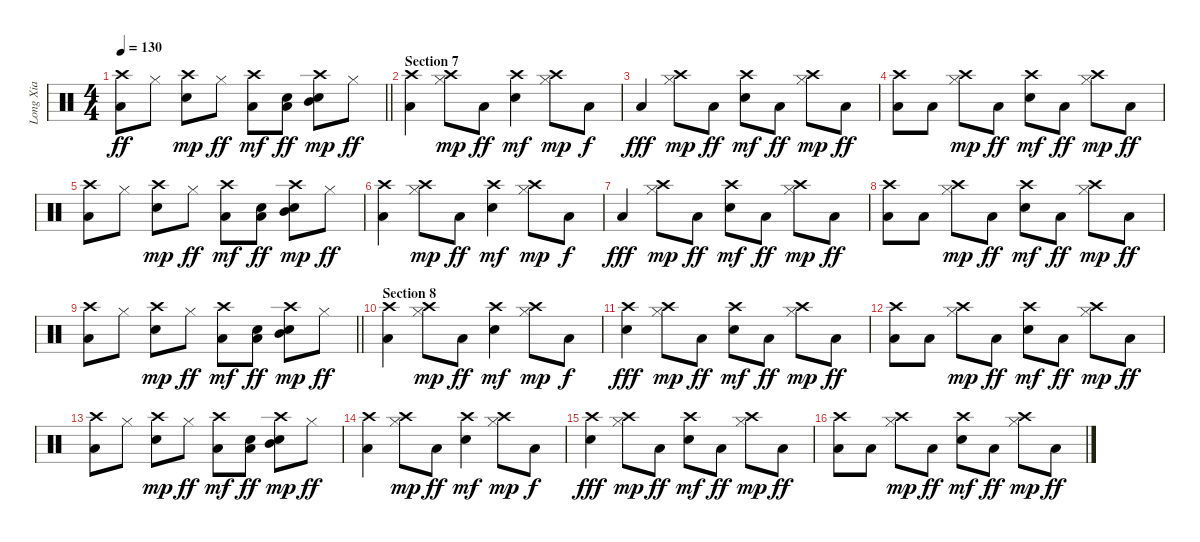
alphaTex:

\track ("Long Xia" "Long Xia") {instrument percussion}
\staff {score}
\articulation defaults
\ts (4 4)
\tempo 130
\clef neutral
\barLineRight lightlight
\ks c
("Low Floor Tom (hit)" "Crash high (hit)").8{dy ff} "Hi-Hat (closed)".8 ("Electric Snare (hit)" "Crash high (hit)").8{dy mp} "Hi-Hat (closed)".8{dy ff} ("Low Floor Tom (hit)" "Crash high (hit)").8{dy mf} ("Electric Snare (hit)" "Low Tom (hit)").8{dy ff} ("Electric Snare (hit)" "Mid Tom (hit)" "Crash high (hit)").8{dy mp} "Hi-Hat (closed)".8{dy ff} |
\section ("" "Section 7")
("Low Floor Tom (hit)" "Crash high (hit)").4 ("Hi-Hat (closed)" "Crash high (hit)").8{dy mp} "Low Floor Tom (hit)".8{dy ff} ("Electric Snare (hit)" "Crash high (hit)").4{dy mf} ("Hi-Hat (closed)" "Crash high (hit)").8{dy mp} "Low Floor Tom (hit)".8{dy f} |
"Low Floor Tom (hit)".4{dy fff} ("Hi-Hat (closed)" "Crash high (hit)").8{dy mp} "Low Floor Tom (hit)".8{dy ff} ("Electric Snare (hit)" "Crash high (hit)").8{dy mf} "Low Floor Tom (hit)".8{dy ff} ("Hi-Hat (closed)" "Crash high (hit)").8{dy mp} "Low Floor Tom (hit)".8{dy ff} |
("Low Floor Tom (hit)" "Crash high (hit)").8 "Low Floor Tom (hit)".8 ("Hi-Hat (closed)" "Crash high (hit)").8{dy mp} "Low Floor Tom (hit)".8{dy ff} ("Electric Snare (hit)" "Crash high (hit)").8{dy mf} "Low Floor Tom (hit)".8{dy ff} ("Hi-Hat (closed)" "Crash high (hit)").8{dy mp} "Low Floor Tom (hit)".8{dy ff} |
("Low Floor Tom (hit)" "Crash high (hit)").8 "Hi-Hat (closed)".8 ("Electric Snare (hit)" "Crash high (hit)").8{dy mp} "Hi-Hat (closed)".8{dy ff} ("Low Floor Tom (hit)" "Crash high (hit)").8{dy mf} ("Electric Snare (hit)" "Low Tom (hit)").8{dy ff} ("Electric Snare (hit)" "Mid Tom (hit)" "Crash high (hit)").8{dy mp} "Hi-Hat (closed)".8{dy ff} |
("Low Floor Tom (hit)" "Crash high (hit)").4 ("Hi-Hat (closed)" "Crash high (hit)").8{dy mp} "Low Floor Tom (hit)".8{dy ff} ("Electric Snare (hit)" "Crash high (hit)").4{dy mf} ("Hi-Hat (closed)" "Crash high (hit)").8{dy mp} "Low Floor Tom (hit)".8{dy f} |
"Low Floor Tom (hit)".4{dy fff} ("Hi-Hat (closed)" "Crash high (hit)").8{dy mp} "Low Floor Tom (hit)".8{dy ff} ("Electric Snare (hit)" "Crash high (hit)").8{dy mf} "Low Floor Tom (hit)".8{dy ff} ("Hi-Hat (closed)" "Crash high (hit)").8{dy mp} "Low Floor Tom (hit)".8{dy ff} |
("Low Floor Tom (hit)" "Crash high (hit)").8 "Low Floor Tom (hit)".8 ("Hi-Hat (closed)" "Crash high (hit)").8{dy mp} "Low Floor Tom (hit)".8{dy ff} ("Electric Snare (hit)" "Crash high (hit)").8{dy mf} "Low Floor Tom (hit)".8{dy ff} ("Hi-Hat (closed)" "Crash high (hit)").8{dy mp} "Low Floor Tom (hit)".8{dy ff} |
\barLineRight lightlight
("Low Floor Tom (hit)" "Crash high (hit)").8 "Hi-Hat (closed)".8 ("Electric Snare (hit)" "Crash high (hit)").8{dy mp} "Hi-Hat (closed)".8{dy ff} ("Low Floor Tom (hit)" "Crash high (hit)").8{dy mf} ("Electric Snare (hit)" "Low Tom (hit)").8{dy ff} ("Electric Snare (hit)" "Mid Tom (hit)" "Crash high (hit)").8{dy mp} "Hi-Hat (closed)".8{dy ff} |
\section ("" "Section 8")
("Low Floor Tom (hit)" "Crash high (hit)").4 ("Hi-Hat (closed)" "Crash high (hit)").8{dy mp} "Low Floor Tom (hit)".8{dy ff} ("Electric Snare (hit)" "Crash high (hit)").4{dy mf} ("Hi-Hat (closed)" "Crash high (hit)").8{dy mp} "Low Floor Tom (hit)".8{dy f} |
("Electric Snare (hit)" "Crash high (hit)").4{dy fff} ("Hi-Hat (closed)" "Crash high (hit)").8{dy mp} "Low Floor Tom (hit)".8{dy ff} ("Electric Snare (hit)" "Crash high (hit)").8{dy mf} "Low Floor Tom (hit)".8{dy ff} ("Hi-Hat (closed)" "Crash high (hit)").8{dy mp} "Low Floor Tom (hit)".8{dy ff} |
("Low Floor Tom (hit)" "Crash high (hit)").8 "Low Floor Tom (hit)".8 ("Hi-Hat (closed)" "Crash high (hit)").8{dy mp} "Low Floor Tom (hit)".8{dy ff} ("Electric Snare (hit)" "Crash high (hit)").8{dy mf} "Low Floor Tom (hit)".8{dy ff} ("Hi-Hat (closed)" "Crash high (hit)").8{dy mp} "Low Floor Tom (hit)".8{dy ff} |
("Low Floor Tom (hit)" "Crash high (hit)").8 "Hi-Hat (closed)".8 ("Electric Snare (hit)" "Crash high (hit)").8{dy mp} "Hi-Hat (closed)".8{dy ff} ("Low Floor Tom (hit)" "Crash high (hit)").8{dy mf} ("Electric Snare (hit)" "Low Tom (hit)").8{dy ff} ("Electric Snare (hit)" "Mid Tom (hit)" "Crash high (hit)").8{dy mp} "Hi-Hat (closed)".8{dy ff} |
("Low Floor Tom (hit)" "Crash high (hit)").4 ("Hi-Hat (closed)" "Crash high (hit)").8{dy mp} "Low Floor Tom (hit)".8{dy ff} ("Electric Snare (hit)" "Crash high (hit)").4{dy mf} ("Hi-Hat (closed)" "Crash high (hit)").8{dy mp} "Low Floor Tom (hit)".8{dy f} |
("Electric Snare (hit)" "Crash high (hit)").4{dy fff} ("Hi-Hat (closed)" "Crash high (hit)").8{dy mp} "Low Floor Tom (hit)".8{dy ff} ("Electric Snare (hit)" "Crash high (hit)").8{dy mf} "Low Floor Tom (hit)".8{dy ff} ("Hi-Hat (closed)" "Crash high (hit)").8{dy mp} "Low Floor Tom (hit)".8{dy ff} |
("Low Floor Tom (hit)" "Crash high (hit)").8 "Low Floor Tom (hit)".8 ("Hi-Hat (closed)" "Crash high (hit)").8{dy mp} "Low Floor Tom (hit)".8{dy ff} ("Electric Snare (hit)" "Crash high (hit)").8{dy mf} "Low Floor Tom (hit)".8{dy ff} ("Hi-Hat (closed)" "Crash high (hit)").8{dy mp} "Low Floor Tom (hit)".8{dy ff}
